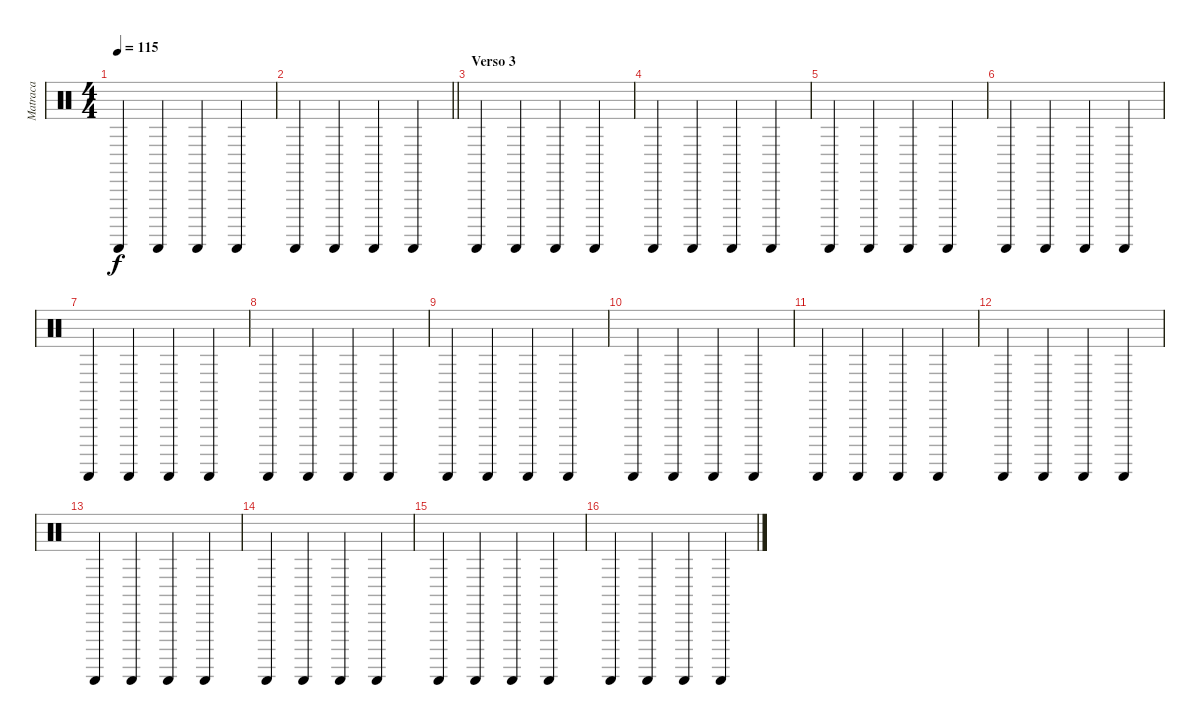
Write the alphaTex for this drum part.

\track ("Matraca" "Matraca") {instrument percussion}
\staff {score}
\articulation defaults
\ts (4 4)
\tempo 115
\clef neutral
\ks c "Guiro (scrap-return)".4{dy f} "Guiro (scrap-return)".4 "Guiro (scrap-return)".4 "Guiro (scrap-return)".4
|
\barLineRight lightlight "Guiro (scrap-return)".4 "Guiro (scrap-return)".4 "Guiro (scrap-return)".4 "Guiro (scrap-return)".4
|
\section ("" "Verso 3")
"Guiro (scrap-return)".4 "Guiro (scrap-return)".4 "Guiro (scrap-return)".4 "Guiro (scrap-return)".4 |
"Guiro (scrap-return)".4 "Guiro (scrap-return)".4 "Guiro (scrap-return)".4 "Guiro (scrap-return)".4 |
"Guiro (scrap-return)".4 "Guiro (scrap-return)".4 "Guiro (scrap-return)".4 "Guiro (scrap-return)".4 |
"Guiro (scrap-return)".4 "Guiro (scrap-return)".4 "Guiro (scrap-return)".4 "Guiro (scrap-return)".4 |
"Guiro (scrap-return)".4 "Guiro (scrap-return)".4 "Guiro (scrap-return)".4 "Guiro (scrap-return)".4 |
"Guiro (scrap-return)".4 "Guiro (scrap-return)".4 "Guiro (scrap-return)".4 "Guiro (scrap-return)".4 |
"Guiro (scrap-return)".4 "Guiro (scrap-return)".4 "Guiro (scrap-return)".4 "Guiro (scrap-return)".4 |
"Guiro (scrap-return)".4 "Guiro (scrap-return)".4 "Guiro (scrap-return)".4 "Guiro (scrap-return)".4 |
"Guiro (scrap-return)".4 "Guiro (scrap-return)".4 "Guiro (scrap-return)".4 "Guiro (scrap-return)".4 |
"Guiro (scrap-return)".4 "Guiro (scrap-return)".4 "Guiro (scrap-return)".4 "Guiro (scrap-return)".4 |
"Guiro (scrap-return)".4 "Guiro (scrap-return)".4 "Guiro (scrap-return)".4 "Guiro (scrap-return)".4 |
"Guiro (scrap-return)".4 "Guiro (scrap-return)".4 "Guiro (scrap-return)".4 "Guiro (scrap-return)".4 |
"Guiro (scrap-return)".4 "Guiro (scrap-return)".4 "Guiro (scrap-return)".4 "Guiro (scrap-return)".4 |
"Guiro (scrap-return)".4 "Guiro (scrap-return)".4 "Guiro (scrap-return)".4 "Guiro (scrap-return)".4
